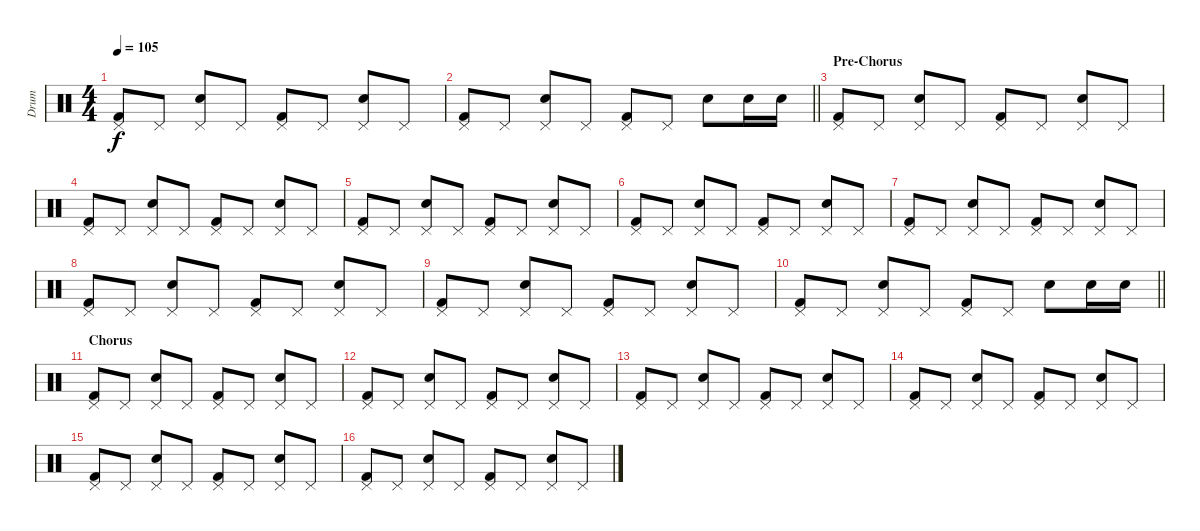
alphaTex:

\track ("Drum" "Drum") {instrument percussion}
\staff {score}
\articulation defaults
\ts (4 4)
\tempo 105
\clef neutral
\ks c
("Kick (hit) 2" "Pedal Hi-Hat (hit)").8{dy f} "Pedal Hi-Hat (hit)".8 ("Electric Snare (hit)" "Pedal Hi-Hat (hit)").8 "Pedal Hi-Hat (hit)".8 ("Kick (hit) 2" "Pedal Hi-Hat (hit)").8 "Pedal Hi-Hat (hit)".8 ("Electric Snare (hit)" "Pedal Hi-Hat (hit)").8 "Pedal Hi-Hat (hit)".8 |
\barLineRight lightlight
("Kick (hit) 2" "Pedal Hi-Hat (hit)").8 "Pedal Hi-Hat (hit)".8 ("Electric Snare (hit)" "Pedal Hi-Hat (hit)").8 "Pedal Hi-Hat (hit)".8 ("Kick (hit) 2" "Pedal Hi-Hat (hit)").8 "Pedal Hi-Hat (hit)".8 "Electric Snare (hit)".8 "Electric Snare (hit)".16 "Electric Snare (hit)".16 |
\section ("" "Pre-Chorus")
("Kick (hit) 2" "Pedal Hi-Hat (hit)").8 "Pedal Hi-Hat (hit)".8 ("Electric Snare (hit)" "Pedal Hi-Hat (hit)").8 "Pedal Hi-Hat (hit)".8 ("Kick (hit) 2" "Pedal Hi-Hat (hit)").8 "Pedal Hi-Hat (hit)".8 ("Electric Snare (hit)" "Pedal Hi-Hat (hit)").8 "Pedal Hi-Hat (hit)".8 |
("Kick (hit) 2" "Pedal Hi-Hat (hit)").8 "Pedal Hi-Hat (hit)".8 ("Electric Snare (hit)" "Pedal Hi-Hat (hit)").8 "Pedal Hi-Hat (hit)".8 ("Kick (hit) 2" "Pedal Hi-Hat (hit)").8 "Pedal Hi-Hat (hit)".8 ("Electric Snare (hit)" "Pedal Hi-Hat (hit)").8 "Pedal Hi-Hat (hit)".8 |
("Kick (hit) 2" "Pedal Hi-Hat (hit)").8 "Pedal Hi-Hat (hit)".8 ("Electric Snare (hit)" "Pedal Hi-Hat (hit)").8 "Pedal Hi-Hat (hit)".8 ("Kick (hit) 2" "Pedal Hi-Hat (hit)").8 "Pedal Hi-Hat (hit)".8 ("Electric Snare (hit)" "Pedal Hi-Hat (hit)").8 "Pedal Hi-Hat (hit)".8 |
("Kick (hit) 2" "Pedal Hi-Hat (hit)").8 "Pedal Hi-Hat (hit)".8 ("Electric Snare (hit)" "Pedal Hi-Hat (hit)").8 "Pedal Hi-Hat (hit)".8 ("Kick (hit) 2" "Pedal Hi-Hat (hit)").8 "Pedal Hi-Hat (hit)".8 ("Electric Snare (hit)" "Pedal Hi-Hat (hit)").8 "Pedal Hi-Hat (hit)".8 |
("Kick (hit) 2" "Pedal Hi-Hat (hit)").8 "Pedal Hi-Hat (hit)".8 ("Electric Snare (hit)" "Pedal Hi-Hat (hit)").8 "Pedal Hi-Hat (hit)".8 ("Kick (hit) 2" "Pedal Hi-Hat (hit)").8 "Pedal Hi-Hat (hit)".8 ("Electric Snare (hit)" "Pedal Hi-Hat (hit)").8 "Pedal Hi-Hat (hit)".8 |
("Kick (hit) 2" "Pedal Hi-Hat (hit)").8 "Pedal Hi-Hat (hit)".8 ("Electric Snare (hit)" "Pedal Hi-Hat (hit)").8 "Pedal Hi-Hat (hit)".8 ("Kick (hit) 2" "Pedal Hi-Hat (hit)").8 "Pedal Hi-Hat (hit)".8 ("Electric Snare (hit)" "Pedal Hi-Hat (hit)").8 "Pedal Hi-Hat (hit)".8 |
("Kick (hit) 2" "Pedal Hi-Hat (hit)").8 "Pedal Hi-Hat (hit)".8 ("Electric Snare (hit)" "Pedal Hi-Hat (hit)").8 "Pedal Hi-Hat (hit)".8 ("Kick (hit) 2" "Pedal Hi-Hat (hit)").8 "Pedal Hi-Hat (hit)".8 ("Electric Snare (hit)" "Pedal Hi-Hat (hit)").8 "Pedal Hi-Hat (hit)".8 |
\barLineRight lightlight
("Kick (hit) 2" "Pedal Hi-Hat (hit)").8 "Pedal Hi-Hat (hit)".8 ("Electric Snare (hit)" "Pedal Hi-Hat (hit)").8 "Pedal Hi-Hat (hit)".8 ("Kick (hit) 2" "Pedal Hi-Hat (hit)").8 "Pedal Hi-Hat (hit)".8 "Electric Snare (hit)".8 "Electric Snare (hit)".16 "Electric Snare (hit)".16 |
\section ("" "Chorus")
("Kick (hit) 2" "Pedal Hi-Hat (hit)").8 "Pedal Hi-Hat (hit)".8 ("Electric Snare (hit)" "Pedal Hi-Hat (hit)").8 "Pedal Hi-Hat (hit)".8 ("Kick (hit) 2" "Pedal Hi-Hat (hit)").8 "Pedal Hi-Hat (hit)".8 ("Electric Snare (hit)" "Pedal Hi-Hat (hit)").8 "Pedal Hi-Hat (hit)".8 |
("Kick (hit) 2" "Pedal Hi-Hat (hit)").8 "Pedal Hi-Hat (hit)".8 ("Electric Snare (hit)" "Pedal Hi-Hat (hit)").8 "Pedal Hi-Hat (hit)".8 ("Kick (hit) 2" "Pedal Hi-Hat (hit)").8 "Pedal Hi-Hat (hit)".8 ("Electric Snare (hit)" "Pedal Hi-Hat (hit)").8 "Pedal Hi-Hat (hit)".8 |
("Kick (hit) 2" "Pedal Hi-Hat (hit)").8 "Pedal Hi-Hat (hit)".8 ("Electric Snare (hit)" "Pedal Hi-Hat (hit)").8 "Pedal Hi-Hat (hit)".8 ("Kick (hit) 2" "Pedal Hi-Hat (hit)").8 "Pedal Hi-Hat (hit)".8 ("Electric Snare (hit)" "Pedal Hi-Hat (hit)").8 "Pedal Hi-Hat (hit)".8 |
("Kick (hit) 2" "Pedal Hi-Hat (hit)").8 "Pedal Hi-Hat (hit)".8 ("Electric Snare (hit)" "Pedal Hi-Hat (hit)").8 "Pedal Hi-Hat (hit)".8 ("Kick (hit) 2" "Pedal Hi-Hat (hit)").8 "Pedal Hi-Hat (hit)".8 ("Electric Snare (hit)" "Pedal Hi-Hat (hit)").8 "Pedal Hi-Hat (hit)".8 |
("Kick (hit) 2" "Pedal Hi-Hat (hit)").8 "Pedal Hi-Hat (hit)".8 ("Electric Snare (hit)" "Pedal Hi-Hat (hit)").8 "Pedal Hi-Hat (hit)".8 ("Kick (hit) 2" "Pedal Hi-Hat (hit)").8 "Pedal Hi-Hat (hit)".8 ("Electric Snare (hit)" "Pedal Hi-Hat (hit)").8 "Pedal Hi-Hat (hit)".8 |
("Kick (hit) 2" "Pedal Hi-Hat (hit)").8 "Pedal Hi-Hat (hit)".8 ("Electric Snare (hit)" "Pedal Hi-Hat (hit)").8 "Pedal Hi-Hat (hit)".8 ("Kick (hit) 2" "Pedal Hi-Hat (hit)").8 "Pedal Hi-Hat (hit)".8 ("Electric Snare (hit)" "Pedal Hi-Hat (hit)").8 "Pedal Hi-Hat (hit)".8
